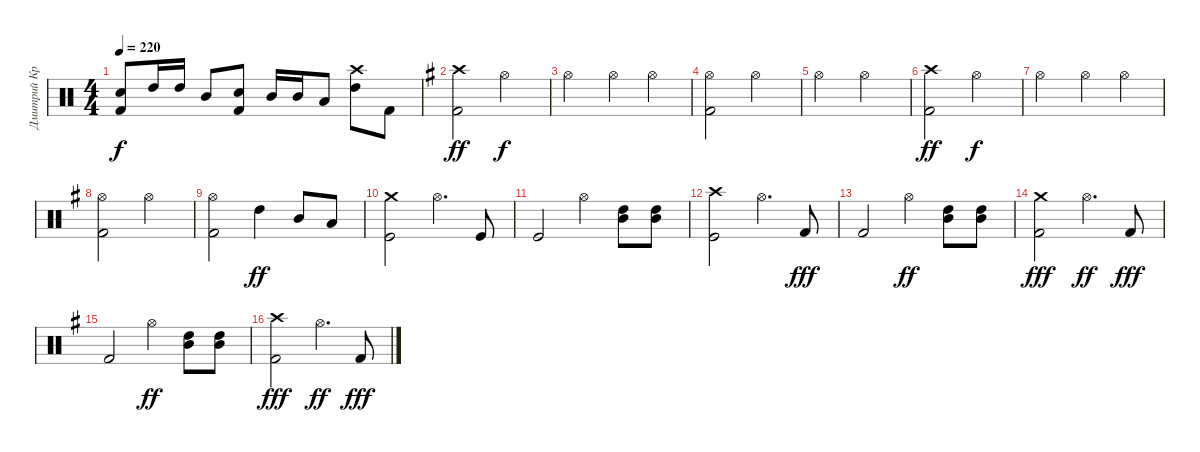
\track ("Дмитрий Кривенков" "Дмитрий Кр") {instrument percussion}
\staff {score}
\articulation defaults
\ts (4 4)
\tempo 220
\clef neutral
\ks c
("Electric Snare (hit)" "Kick (hit) 2").8{dy f} "High Tom (hit)".16 "High Tom (hit)".16 "Mid Tom (hit)".8 ("Electric Snare (hit)" "Kick (hit) 2").8 "Mid Tom (hit)".16 "Mid Tom (hit)".16 "Low Tom (hit)".8 ("High Tom (hit)" "Crash high (hit)").8 "Kick (hit) 2".8 |
\ks g
("Crash high (hit)" "Kick (hit) 2").2{dy ff} "Hi-Hat (open)".2{dy f} |
"Hi-Hat (open)".2 "Hi-Hat (open)".4 "Hi-Hat (open)".4 |
("Hi-Hat (open)" "Kick (hit) 2").2 "Hi-Hat (open)".2 |
"Hi-Hat (open)".2 "Hi-Hat (open)".2 |
("Crash high (hit)" "Kick (hit) 2").2{dy ff} "Hi-Hat (open)".2{dy f} |
"Hi-Hat (open)".2 "Hi-Hat (open)".4 "Hi-Hat (open)".4 |
("Hi-Hat (open)" "Kick (hit) 2").2 "Hi-Hat (open)".2 |
("Hi-Hat (open)" "Kick (hit) 2").2 "High Tom (hit)".4{dy ff} "Mid Tom (hit)".8 "Low Tom (hit)".8 |
("Crash medium (hit)" "Kick (hit)").2 "Hi-Hat (open)".4{d} "Kick (hit)".8 |
"Kick (hit)".2 "Hi-Hat (open)".4 ("Mid Tom (hit)" "High Tom (hit)").8 ("Mid Tom (hit)" "High Tom (hit)").8 |
("Crash high (hit)" "Kick (hit)").2 "Hi-Hat (open)".4{d} "Kick (hit) 2".8{dy fff} |
"Kick (hit) 2".2 "Hi-Hat (open)".4{dy ff} ("High Tom (hit)" "Mid Tom (hit)").8 ("High Tom (hit)" "Mid Tom (hit)").8 |
("Crash medium (hit)" "Kick (hit) 2").2{dy fff} "Hi-Hat (open)".4{d dy ff} "Kick (hit) 2".8{dy fff} |
"Kick (hit) 2".2 "Hi-Hat (open)".4{dy ff} ("Mid Tom (hit)" "High Tom (hit)").8 ("Mid Tom (hit)" "High Tom (hit)").8 |
("Crash high (hit)" "Kick (hit) 2").2{dy fff} "Hi-Hat (open)".4{d dy ff} "Kick (hit) 2".8{dy fff}
